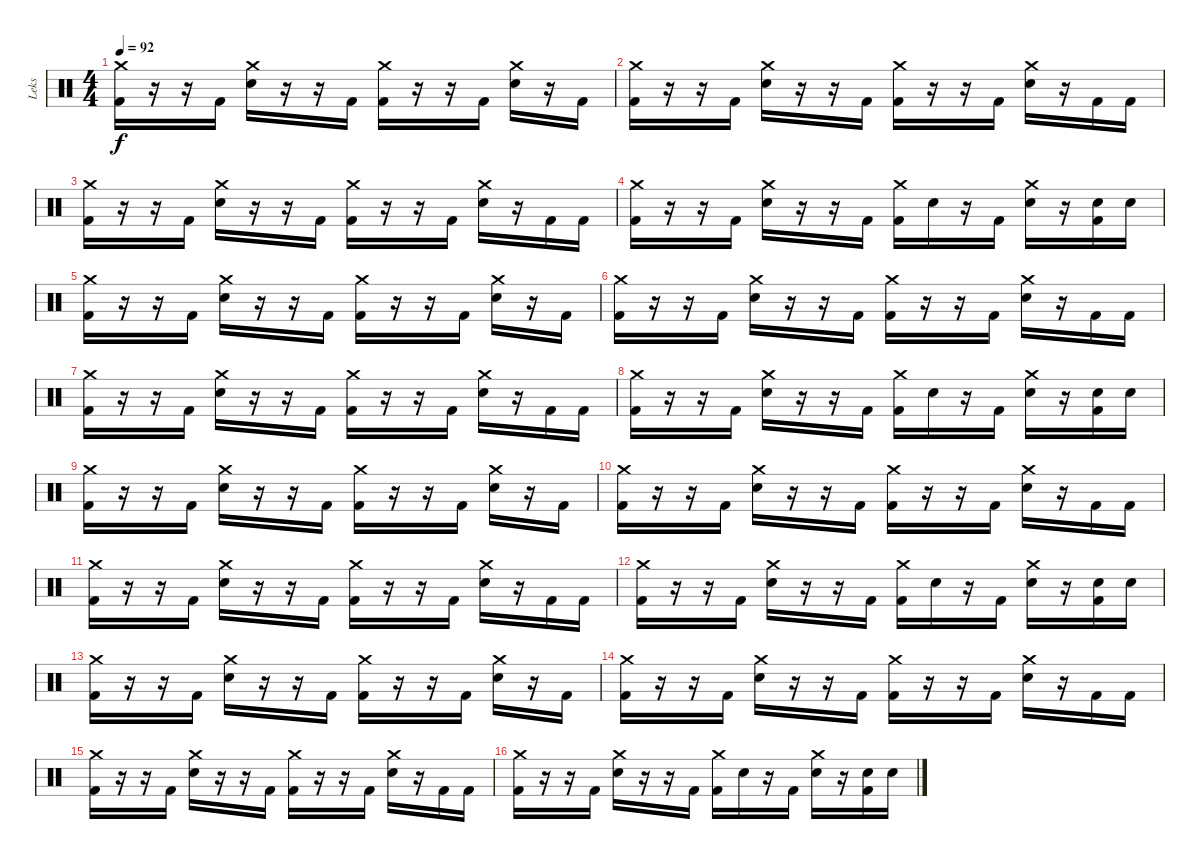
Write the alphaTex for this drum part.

\track ("Leks" "Leks") {instrument percussion}
\staff {score}
\articulation defaults
\ts (4 4)
\tempo 92
\clef neutral
\ks c
("Crash medium (hit)" "Kick (hit) 2").16{dy f} r.16 r.16 "Kick (hit) 2".16 ("Crash medium (hit)" "Snare (hit) 2").16 r.16 r.16 "Kick (hit) 2".16 ("Crash medium (hit)" "Kick (hit) 2").16 r.16 r.16 "Kick (hit) 2".16 ("Crash medium (hit)" "Snare (hit) 2").16 r.16 "Kick (hit) 2".16 |
("Crash medium (hit)" "Kick (hit) 2").16 r.16 r.16 "Kick (hit) 2".16 ("Crash medium (hit)" "Snare (hit) 2").16 r.16 r.16 "Kick (hit) 2".16 ("Crash medium (hit)" "Kick (hit) 2").16 r.16 r.16 "Kick (hit) 2".16 ("Crash medium (hit)" "Snare (hit) 2").16 r.16 "Kick (hit) 2".16 "Kick (hit) 2".16 |
("Crash medium (hit)" "Kick (hit) 2").16 r.16 r.16 "Kick (hit) 2".16 ("Crash medium (hit)" "Snare (hit) 2").16 r.16 r.16 "Kick (hit) 2".16 ("Crash medium (hit)" "Kick (hit) 2").16 r.16 r.16 "Kick (hit) 2".16 ("Crash medium (hit)" "Snare (hit) 2").16 r.16 "Kick (hit) 2".16 "Kick (hit) 2".16 |
("Crash medium (hit)" "Kick (hit) 2").16 r.16 r.16 "Kick (hit) 2".16 ("Crash medium (hit)" "Snare (hit) 2").16 r.16 r.16 "Kick (hit) 2".16 ("Crash medium (hit)" "Kick (hit) 2").16 "Snare (hit) 2".16 r.16 "Kick (hit) 2".16 ("Crash medium (hit)" "Snare (hit) 2").16 r.16 ("Snare (hit) 2" "Kick (hit) 2").16 "Snare (hit) 2".16 |
("Crash medium (hit)" "Kick (hit) 2").16 r.16 r.16 "Kick (hit) 2".16 ("Crash medium (hit)" "Snare (hit) 2").16 r.16 r.16 "Kick (hit) 2".16 ("Crash medium (hit)" "Kick (hit) 2").16 r.16 r.16 "Kick (hit) 2".16 ("Crash medium (hit)" "Snare (hit) 2").16 r.16 "Kick (hit) 2".16 |
("Crash medium (hit)" "Kick (hit) 2").16 r.16 r.16 "Kick (hit) 2".16 ("Crash medium (hit)" "Snare (hit) 2").16 r.16 r.16 "Kick (hit) 2".16 ("Crash medium (hit)" "Kick (hit) 2").16 r.16 r.16 "Kick (hit) 2".16 ("Crash medium (hit)" "Snare (hit) 2").16 r.16 "Kick (hit) 2".16 "Kick (hit) 2".16 |
("Crash medium (hit)" "Kick (hit) 2").16 r.16 r.16 "Kick (hit) 2".16 ("Crash medium (hit)" "Snare (hit) 2").16 r.16 r.16 "Kick (hit) 2".16 ("Crash medium (hit)" "Kick (hit) 2").16 r.16 r.16 "Kick (hit) 2".16 ("Crash medium (hit)" "Snare (hit) 2").16 r.16 "Kick (hit) 2".16 "Kick (hit) 2".16 |
("Crash medium (hit)" "Kick (hit) 2").16 r.16 r.16 "Kick (hit) 2".16 ("Crash medium (hit)" "Snare (hit) 2").16 r.16 r.16 "Kick (hit) 2".16 ("Crash medium (hit)" "Kick (hit) 2").16 "Snare (hit) 2".16 r.16 "Kick (hit) 2".16 ("Crash medium (hit)" "Snare (hit) 2").16 r.16 ("Snare (hit) 2" "Kick (hit) 2").16 "Snare (hit) 2".16 |
("Crash medium (hit)" "Kick (hit) 2").16 r.16 r.16 "Kick (hit) 2".16 ("Crash medium (hit)" "Snare (hit) 2").16 r.16 r.16 "Kick (hit) 2".16 ("Crash medium (hit)" "Kick (hit) 2").16 r.16 r.16 "Kick (hit) 2".16 ("Crash medium (hit)" "Snare (hit) 2").16 r.16 "Kick (hit) 2".16 |
("Crash medium (hit)" "Kick (hit) 2").16 r.16 r.16 "Kick (hit) 2".16 ("Crash medium (hit)" "Snare (hit) 2").16 r.16 r.16 "Kick (hit) 2".16 ("Crash medium (hit)" "Kick (hit) 2").16 r.16 r.16 "Kick (hit) 2".16 ("Crash medium (hit)" "Snare (hit) 2").16 r.16 "Kick (hit) 2".16 "Kick (hit) 2".16 |
("Crash medium (hit)" "Kick (hit) 2").16 r.16 r.16 "Kick (hit) 2".16 ("Crash medium (hit)" "Snare (hit) 2").16 r.16 r.16 "Kick (hit) 2".16 ("Crash medium (hit)" "Kick (hit) 2").16 r.16 r.16 "Kick (hit) 2".16 ("Crash medium (hit)" "Snare (hit) 2").16 r.16 "Kick (hit) 2".16 "Kick (hit) 2".16 |
("Crash medium (hit)" "Kick (hit) 2").16 r.16 r.16 "Kick (hit) 2".16 ("Crash medium (hit)" "Snare (hit) 2").16 r.16 r.16 "Kick (hit) 2".16 ("Crash medium (hit)" "Kick (hit) 2").16 "Snare (hit) 2".16 r.16 "Kick (hit) 2".16 ("Crash medium (hit)" "Snare (hit) 2").16 r.16 ("Snare (hit) 2" "Kick (hit) 2").16 "Snare (hit) 2".16 |
("Crash medium (hit)" "Kick (hit) 2").16 r.16 r.16 "Kick (hit) 2".16 ("Crash medium (hit)" "Snare (hit) 2").16 r.16 r.16 "Kick (hit) 2".16 ("Crash medium (hit)" "Kick (hit) 2").16 r.16 r.16 "Kick (hit) 2".16 ("Crash medium (hit)" "Snare (hit) 2").16 r.16 "Kick (hit) 2".16 |
("Crash medium (hit)" "Kick (hit) 2").16 r.16 r.16 "Kick (hit) 2".16 ("Crash medium (hit)" "Snare (hit) 2").16 r.16 r.16 "Kick (hit) 2".16 ("Crash medium (hit)" "Kick (hit) 2").16 r.16 r.16 "Kick (hit) 2".16 ("Crash medium (hit)" "Snare (hit) 2").16 r.16 "Kick (hit) 2".16 "Kick (hit) 2".16 |
("Crash medium (hit)" "Kick (hit) 2").16 r.16 r.16 "Kick (hit) 2".16 ("Crash medium (hit)" "Snare (hit) 2").16 r.16 r.16 "Kick (hit) 2".16 ("Crash medium (hit)" "Kick (hit) 2").16 r.16 r.16 "Kick (hit) 2".16 ("Crash medium (hit)" "Snare (hit) 2").16 r.16 "Kick (hit) 2".16 "Kick (hit) 2".16 |
("Crash medium (hit)" "Kick (hit) 2").16 r.16 r.16 "Kick (hit) 2".16 ("Crash medium (hit)" "Snare (hit) 2").16 r.16 r.16 "Kick (hit) 2".16 ("Crash medium (hit)" "Kick (hit) 2").16 "Snare (hit) 2".16 r.16 "Kick (hit) 2".16 ("Crash medium (hit)" "Snare (hit) 2").16 r.16 ("Snare (hit) 2" "Kick (hit) 2").16 "Snare (hit) 2".16
